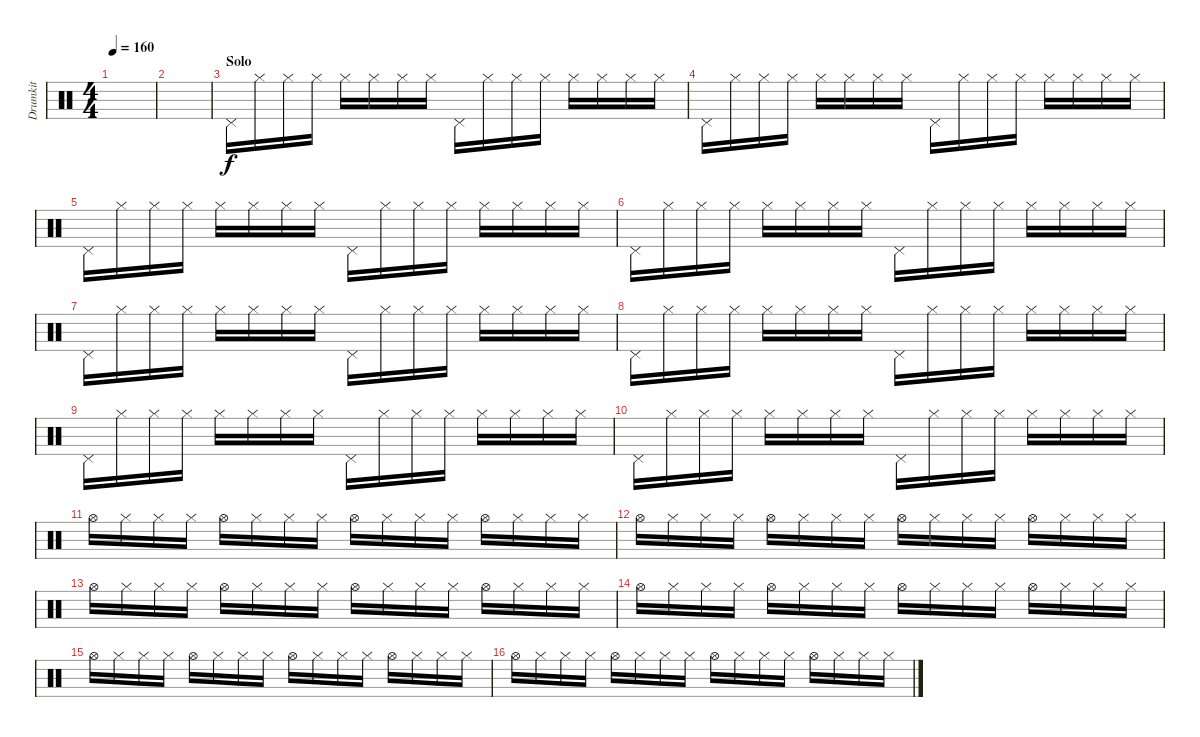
\track ("Drumkit" "Drumkit") {instrument percussion}
\staff {score}
\articulation defaults
\ts (4 4)
\tempo 160
\clef neutral
\ks c
|
|
\section ("" "Solo")
"Pedal Hi-Hat (hit)".16 "Hi-Hat (closed)".16 "Hi-Hat (closed)".16 "Hi-Hat (closed)".16 "Hi-Hat (closed)".16 "Hi-Hat (closed)".16 "Hi-Hat (closed)".16 "Hi-Hat (closed)".16 "Pedal Hi-Hat (hit)".16 "Hi-Hat (closed)".16 "Hi-Hat (closed)".16 "Hi-Hat (closed)".16 "Hi-Hat (closed)".16 "Hi-Hat (closed)".16 "Hi-Hat (closed)".16 "Hi-Hat (closed)".16 |
"Pedal Hi-Hat (hit)".16 "Hi-Hat (closed)".16 "Hi-Hat (closed)".16 "Hi-Hat (closed)".16 "Hi-Hat (closed)".16 "Hi-Hat (closed)".16 "Hi-Hat (closed)".16 "Hi-Hat (closed)".16 "Pedal Hi-Hat (hit)".16 "Hi-Hat (closed)".16 "Hi-Hat (closed)".16 "Hi-Hat (closed)".16 "Hi-Hat (closed)".16 "Hi-Hat (closed)".16 "Hi-Hat (closed)".16 "Hi-Hat (closed)".16 |
"Pedal Hi-Hat (hit)".16 "Hi-Hat (closed)".16 "Hi-Hat (closed)".16 "Hi-Hat (closed)".16 "Hi-Hat (closed)".16 "Hi-Hat (closed)".16 "Hi-Hat (closed)".16 "Hi-Hat (closed)".16 "Pedal Hi-Hat (hit)".16 "Hi-Hat (closed)".16 "Hi-Hat (closed)".16 "Hi-Hat (closed)".16 "Hi-Hat (closed)".16 "Hi-Hat (closed)".16 "Hi-Hat (closed)".16 "Hi-Hat (closed)".16 |
"Pedal Hi-Hat (hit)".16 "Hi-Hat (closed)".16 "Hi-Hat (closed)".16 "Hi-Hat (closed)".16 "Hi-Hat (closed)".16 "Hi-Hat (closed)".16 "Hi-Hat (closed)".16 "Hi-Hat (closed)".16 "Pedal Hi-Hat (hit)".16 "Hi-Hat (closed)".16 "Hi-Hat (closed)".16 "Hi-Hat (closed)".16 "Hi-Hat (closed)".16 "Hi-Hat (closed)".16 "Hi-Hat (closed)".16 "Hi-Hat (closed)".16 |
"Pedal Hi-Hat (hit)".16 "Hi-Hat (closed)".16 "Hi-Hat (closed)".16 "Hi-Hat (closed)".16 "Hi-Hat (closed)".16 "Hi-Hat (closed)".16 "Hi-Hat (closed)".16 "Hi-Hat (closed)".16 "Pedal Hi-Hat (hit)".16 "Hi-Hat (closed)".16 "Hi-Hat (closed)".16 "Hi-Hat (closed)".16 "Hi-Hat (closed)".16 "Hi-Hat (closed)".16 "Hi-Hat (closed)".16 "Hi-Hat (closed)".16 |
"Pedal Hi-Hat (hit)".16 "Hi-Hat (closed)".16 "Hi-Hat (closed)".16 "Hi-Hat (closed)".16 "Hi-Hat (closed)".16 "Hi-Hat (closed)".16 "Hi-Hat (closed)".16 "Hi-Hat (closed)".16 "Pedal Hi-Hat (hit)".16 "Hi-Hat (closed)".16 "Hi-Hat (closed)".16 "Hi-Hat (closed)".16 "Hi-Hat (closed)".16 "Hi-Hat (closed)".16 "Hi-Hat (closed)".16 "Hi-Hat (closed)".16 |
"Pedal Hi-Hat (hit)".16 "Hi-Hat (closed)".16 "Hi-Hat (closed)".16 "Hi-Hat (closed)".16 "Hi-Hat (closed)".16 "Hi-Hat (closed)".16 "Hi-Hat (closed)".16 "Hi-Hat (closed)".16 "Pedal Hi-Hat (hit)".16 "Hi-Hat (closed)".16 "Hi-Hat (closed)".16 "Hi-Hat (closed)".16 "Hi-Hat (closed)".16 "Hi-Hat (closed)".16 "Hi-Hat (closed)".16 "Hi-Hat (closed)".16 |
"Pedal Hi-Hat (hit)".16 "Hi-Hat (closed)".16 "Hi-Hat (closed)".16 "Hi-Hat (closed)".16 "Hi-Hat (closed)".16 "Hi-Hat (closed)".16 "Hi-Hat (closed)".16 "Hi-Hat (closed)".16 "Pedal Hi-Hat (hit)".16 "Hi-Hat (closed)".16 "Hi-Hat (closed)".16 "Hi-Hat (closed)".16 "Hi-Hat (closed)".16 "Hi-Hat (closed)".16 "Hi-Hat (closed)".16 "Hi-Hat (closed)".16 |
"Hi-Hat (open)".16 "Hi-Hat (closed)".16 "Hi-Hat (closed)".16 "Hi-Hat (closed)".16 "Hi-Hat (open)".16 "Hi-Hat (closed)".16 "Hi-Hat (closed)".16 "Hi-Hat (closed)".16 "Hi-Hat (open)".16 "Hi-Hat (closed)".16 "Hi-Hat (closed)".16 "Hi-Hat (closed)".16 "Hi-Hat (open)".16 "Hi-Hat (closed)".16 "Hi-Hat (closed)".16 "Hi-Hat (closed)".16 |
"Hi-Hat (open)".16 "Hi-Hat (closed)".16 "Hi-Hat (closed)".16 "Hi-Hat (closed)".16 "Hi-Hat (open)".16 "Hi-Hat (closed)".16 "Hi-Hat (closed)".16 "Hi-Hat (closed)".16 "Hi-Hat (open)".16 "Hi-Hat (closed)".16 "Hi-Hat (closed)".16 "Hi-Hat (closed)".16 "Hi-Hat (open)".16 "Hi-Hat (closed)".16 "Hi-Hat (closed)".16 "Hi-Hat (closed)".16 |
"Hi-Hat (open)".16 "Hi-Hat (closed)".16 "Hi-Hat (closed)".16 "Hi-Hat (closed)".16 "Hi-Hat (open)".16 "Hi-Hat (closed)".16 "Hi-Hat (closed)".16 "Hi-Hat (closed)".16 "Hi-Hat (open)".16 "Hi-Hat (closed)".16 "Hi-Hat (closed)".16 "Hi-Hat (closed)".16 "Hi-Hat (open)".16 "Hi-Hat (closed)".16 "Hi-Hat (closed)".16 "Hi-Hat (closed)".16 |
"Hi-Hat (open)".16 "Hi-Hat (closed)".16 "Hi-Hat (closed)".16 "Hi-Hat (closed)".16 "Hi-Hat (open)".16 "Hi-Hat (closed)".16 "Hi-Hat (closed)".16 "Hi-Hat (closed)".16 "Hi-Hat (open)".16 "Hi-Hat (closed)".16 "Hi-Hat (closed)".16 "Hi-Hat (closed)".16 "Hi-Hat (open)".16 "Hi-Hat (closed)".16 "Hi-Hat (closed)".16 "Hi-Hat (closed)".16 |
"Hi-Hat (open)".16 "Hi-Hat (closed)".16 "Hi-Hat (closed)".16 "Hi-Hat (closed)".16 "Hi-Hat (open)".16 "Hi-Hat (closed)".16 "Hi-Hat (closed)".16 "Hi-Hat (closed)".16 "Hi-Hat (open)".16 "Hi-Hat (closed)".16 "Hi-Hat (closed)".16 "Hi-Hat (closed)".16 "Hi-Hat (open)".16 "Hi-Hat (closed)".16 "Hi-Hat (closed)".16 "Hi-Hat (closed)".16 |
"Hi-Hat (open)".16 "Hi-Hat (closed)".16 "Hi-Hat (closed)".16 "Hi-Hat (closed)".16 "Hi-Hat (open)".16 "Hi-Hat (closed)".16 "Hi-Hat (closed)".16 "Hi-Hat (closed)".16 "Hi-Hat (open)".16 "Hi-Hat (closed)".16 "Hi-Hat (closed)".16 "Hi-Hat (closed)".16 "Hi-Hat (open)".16 "Hi-Hat (closed)".16 "Hi-Hat (closed)".16 "Hi-Hat (closed)".16
